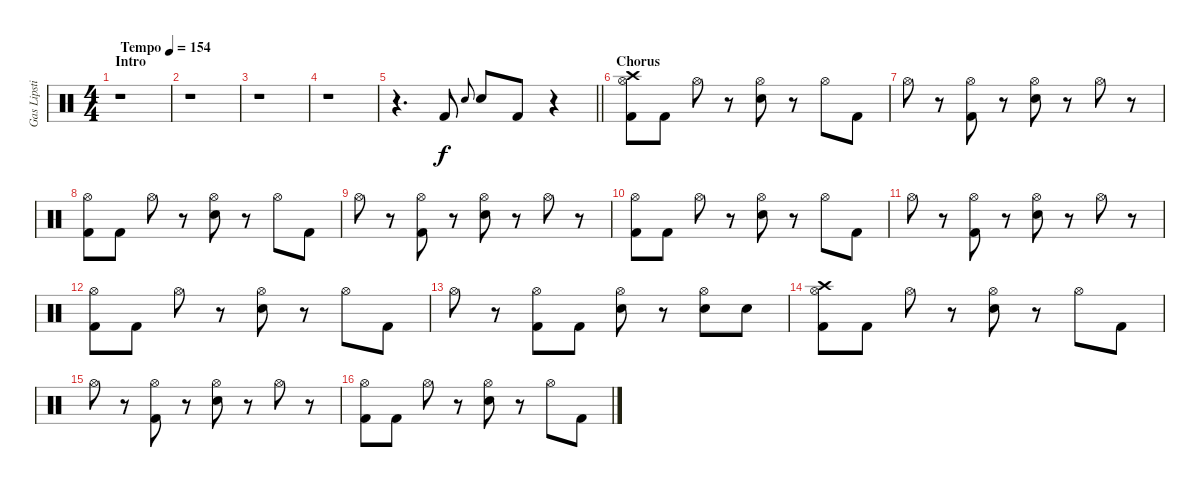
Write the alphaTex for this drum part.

\track ("Gas Lipstick (Drums)" "Gas Lipsti") {instrument percussion}
\staff {score}
\articulation defaults
\ts (4 4)
\section ("" "Intro")
\tempo (154 "Tempo")
\clef neutral
\ks c
r.1{dy f} |
r.1 |
r.1 |
r.1 |
\barLineRight lightlight
r.4{d} "Kick (hit) 2".8 "Snare (hit) 2".8{gr onbeat} "Snare (hit) 2".8 "Kick (hit) 2".8 r.4 |
\section ("" "Chorus")
("Crash high (hit)" "Hi-Hat (open)" "Kick (hit) 2").8 "Kick (hit) 2".8 "Hi-Hat (open)".8 r.8 ("Hi-Hat (open)" "Snare (hit) 2").8 r.8 "Hi-Hat (open)".8 "Kick (hit) 2".8 |
"Hi-Hat (open)".8 r.8 ("Hi-Hat (open)" "Kick (hit) 2").8 r.8 ("Hi-Hat (open)" "Snare (hit) 2").8 r.8 "Hi-Hat (open)".8 r.8 |
("Hi-Hat (open)" "Kick (hit) 2").8 "Kick (hit) 2".8 "Hi-Hat (open)".8 r.8 ("Hi-Hat (open)" "Snare (hit) 2").8 r.8 "Hi-Hat (open)".8 "Kick (hit) 2".8 |
"Hi-Hat (open)".8 r.8 ("Hi-Hat (open)" "Kick (hit) 2").8 r.8 ("Hi-Hat (open)" "Snare (hit) 2").8 r.8 "Hi-Hat (open)".8 r.8 |
("Hi-Hat (open)" "Kick (hit) 2").8 "Kick (hit) 2".8 "Hi-Hat (open)".8 r.8 ("Hi-Hat (open)" "Snare (hit) 2").8 r.8 "Hi-Hat (open)".8 "Kick (hit) 2".8 |
"Hi-Hat (open)".8 r.8 ("Hi-Hat (open)" "Kick (hit) 2").8 r.8 ("Hi-Hat (open)" "Snare (hit) 2").8 r.8 "Hi-Hat (open)".8 r.8 |
("Hi-Hat (open)" "Kick (hit) 2").8 "Kick (hit) 2".8 "Hi-Hat (open)".8 r.8 ("Hi-Hat (open)" "Snare (hit) 2").8 r.8 "Hi-Hat (open)".8 "Kick (hit) 2".8 |
"Hi-Hat (open)".8 r.8 ("Hi-Hat (open)" "Kick (hit) 2").8 "Kick (hit) 2".8 ("Hi-Hat (open)" "Snare (hit) 2").8 r.8 ("Hi-Hat (open)" "Snare (hit) 2").8 "Snare (hit) 2".8 |
("Crash high (hit)" "Hi-Hat (open)" "Kick (hit) 2").8 "Kick (hit) 2".8 "Hi-Hat (open)".8 r.8 ("Hi-Hat (open)" "Snare (hit) 2").8 r.8 "Hi-Hat (open)".8 "Kick (hit) 2".8 |
"Hi-Hat (open)".8 r.8 ("Hi-Hat (open)" "Kick (hit) 2").8 r.8 ("Hi-Hat (open)" "Snare (hit) 2").8 r.8 "Hi-Hat (open)".8 r.8 |
("Hi-Hat (open)" "Kick (hit) 2").8 "Kick (hit) 2".8 "Hi-Hat (open)".8 r.8 ("Hi-Hat (open)" "Snare (hit) 2").8 r.8 "Hi-Hat (open)".8 "Kick (hit) 2".8
